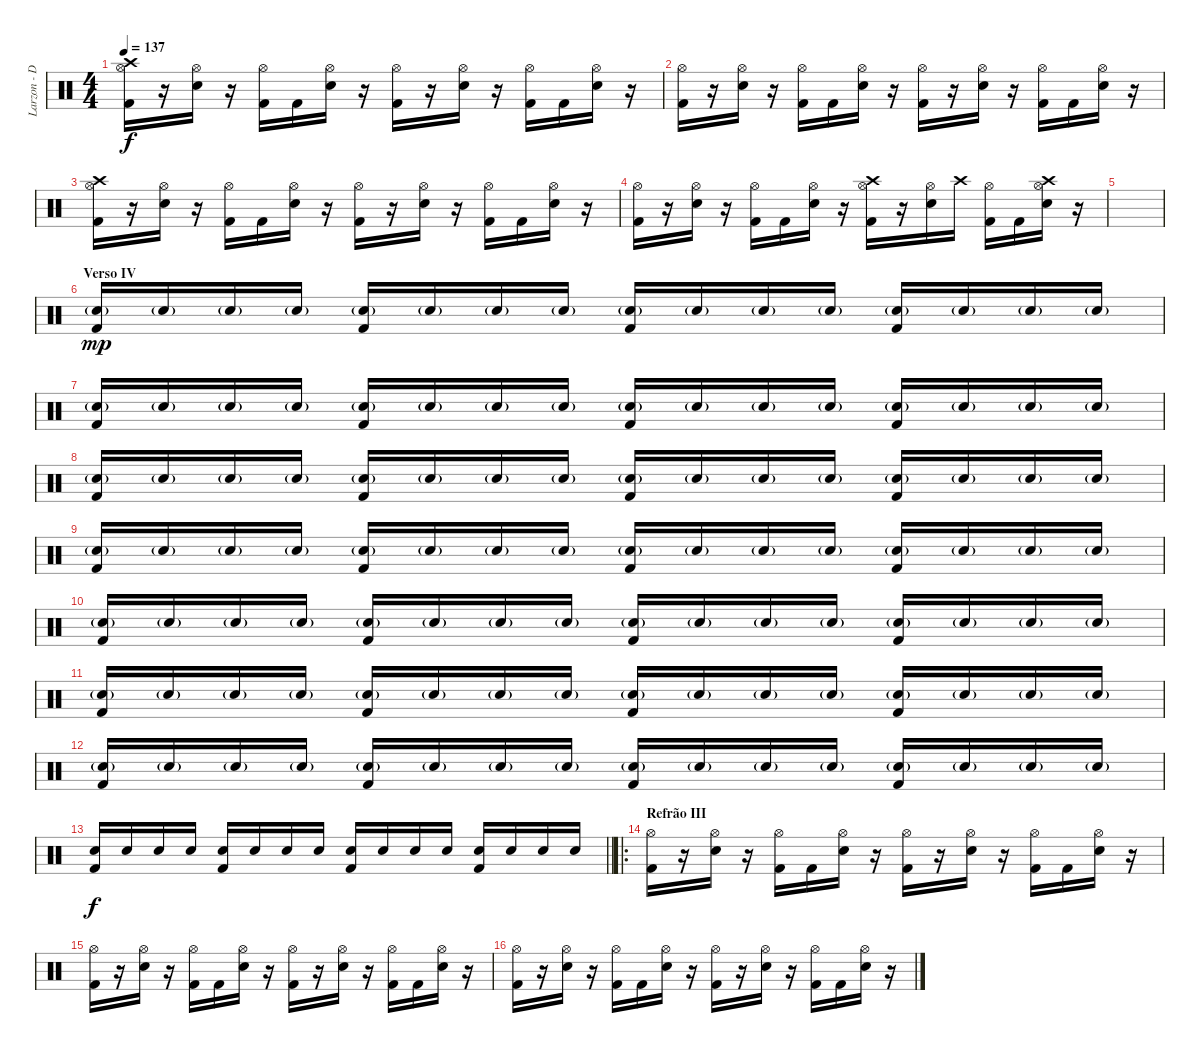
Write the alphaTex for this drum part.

\track ("Larzon - Drums" "Larzon - D") {instrument percussion}
\staff {score}
\articulation defaults
\ts (4 4)
\tempo 137
\clef neutral
\ks c
("Kick (hit) 2" "Crash high (hit)" "Hi-Hat (open)").16{dy f} r.16 ("Snare (hit) 2" "Hi-Hat (open)").16 r.16 ("Kick (hit) 2" "Hi-Hat (open)").16 "Kick (hit) 2".16 ("Snare (hit) 2" "Hi-Hat (open)").16 r.16 ("Kick (hit) 2" "Hi-Hat (open)").16 r.16 ("Snare (hit) 2" "Hi-Hat (open)").16 r.16 ("Kick (hit) 2" "Hi-Hat (open)").16 "Kick (hit) 2".16 ("Snare (hit) 2" "Hi-Hat (open)").16 r.16 |
("Kick (hit) 2" "Hi-Hat (open)").16 r.16 ("Snare (hit) 2" "Hi-Hat (open)").16 r.16 ("Kick (hit) 2" "Hi-Hat (open)").16 "Kick (hit) 2".16 ("Snare (hit) 2" "Hi-Hat (open)").16 r.16 ("Kick (hit) 2" "Hi-Hat (open)").16 r.16 ("Snare (hit) 2" "Hi-Hat (open)").16 r.16 ("Kick (hit) 2" "Hi-Hat (open)").16 "Kick (hit) 2".16 ("Snare (hit) 2" "Hi-Hat (open)").16 r.16 |
("Kick (hit) 2" "Crash high (hit)" "Hi-Hat (open)").16 r.16 ("Snare (hit) 2" "Hi-Hat (open)").16 r.16 ("Kick (hit) 2" "Hi-Hat (open)").16 "Kick (hit) 2".16 ("Snare (hit) 2" "Hi-Hat (open)").16 r.16 ("Kick (hit) 2" "Hi-Hat (open)").16 r.16 ("Snare (hit) 2" "Hi-Hat (open)").16 r.16 ("Kick (hit) 2" "Hi-Hat (open)").16 "Kick (hit) 2".16 ("Snare (hit) 2" "Hi-Hat (open)").16 r.16 |
("Kick (hit) 2" "Hi-Hat (open)").16 r.16 ("Snare (hit) 2" "Hi-Hat (open)").16 r.16 ("Kick (hit) 2" "Hi-Hat (open)").16 "Kick (hit) 2".16 ("Snare (hit) 2" "Hi-Hat (open)").16 r.16 ("Kick (hit) 2" "Crash high (hit)" "Hi-Hat (open)").16 r.16 ("Snare (hit) 2" "Hi-Hat (open)").16 "Crash high (hit)".16 ("Kick (hit) 2" "Hi-Hat (open)").16 "Kick (hit) 2".16 ("Snare (hit) 2" "Crash high (hit)" "Hi-Hat (open)").16 r.16 |
|
\section ("" "Verso IV")
("Snare (hit) 2"{g} "Kick (hit) 2").16{dy mp} "Snare (hit) 2"{g}.16 "Snare (hit) 2"{g}.16 "Snare (hit) 2"{g}.16 ("Snare (hit) 2"{g} "Kick (hit) 2").16 "Snare (hit) 2"{g}.16 "Snare (hit) 2"{g}.16 "Snare (hit) 2"{g}.16 ("Snare (hit) 2"{g} "Kick (hit) 2").16 "Snare (hit) 2"{g}.16 "Snare (hit) 2"{g}.16 "Snare (hit) 2"{g}.16 ("Snare (hit) 2"{g} "Kick (hit) 2").16 "Snare (hit) 2"{g}.16 "Snare (hit) 2"{g}.16 "Snare (hit) 2"{g}.16 |
("Snare (hit) 2"{g} "Kick (hit) 2").16 "Snare (hit) 2"{g}.16 "Snare (hit) 2"{g}.16 "Snare (hit) 2"{g}.16 ("Snare (hit) 2"{g} "Kick (hit) 2").16 "Snare (hit) 2"{g}.16 "Snare (hit) 2"{g}.16 "Snare (hit) 2"{g}.16 ("Snare (hit) 2"{g} "Kick (hit) 2").16 "Snare (hit) 2"{g}.16 "Snare (hit) 2"{g}.16 "Snare (hit) 2"{g}.16 ("Snare (hit) 2"{g} "Kick (hit) 2").16 "Snare (hit) 2"{g}.16 "Snare (hit) 2"{g}.16 "Snare (hit) 2"{g}.16 |
("Snare (hit) 2"{g} "Kick (hit) 2").16 "Snare (hit) 2"{g}.16 "Snare (hit) 2"{g}.16 "Snare (hit) 2"{g}.16 ("Snare (hit) 2"{g} "Kick (hit) 2").16 "Snare (hit) 2"{g}.16 "Snare (hit) 2"{g}.16 "Snare (hit) 2"{g}.16 ("Snare (hit) 2"{g} "Kick (hit) 2").16 "Snare (hit) 2"{g}.16 "Snare (hit) 2"{g}.16 "Snare (hit) 2"{g}.16 ("Snare (hit) 2"{g} "Kick (hit) 2").16 "Snare (hit) 2"{g}.16 "Snare (hit) 2"{g}.16 "Snare (hit) 2"{g}.16 |
("Snare (hit) 2"{g} "Kick (hit) 2").16 "Snare (hit) 2"{g}.16 "Snare (hit) 2"{g}.16 "Snare (hit) 2"{g}.16 ("Snare (hit) 2"{g} "Kick (hit) 2").16 "Snare (hit) 2"{g}.16 "Snare (hit) 2"{g}.16 "Snare (hit) 2"{g}.16 ("Snare (hit) 2"{g} "Kick (hit) 2").16 "Snare (hit) 2"{g}.16 "Snare (hit) 2"{g}.16 "Snare (hit) 2"{g}.16 ("Snare (hit) 2"{g} "Kick (hit) 2").16 "Snare (hit) 2"{g}.16 "Snare (hit) 2"{g}.16 "Snare (hit) 2"{g}.16 |
("Snare (hit) 2"{g} "Kick (hit) 2").16 "Snare (hit) 2"{g}.16 "Snare (hit) 2"{g}.16 "Snare (hit) 2"{g}.16 ("Snare (hit) 2"{g} "Kick (hit) 2").16 "Snare (hit) 2"{g}.16 "Snare (hit) 2"{g}.16 "Snare (hit) 2"{g}.16 ("Snare (hit) 2"{g} "Kick (hit) 2").16 "Snare (hit) 2"{g}.16 "Snare (hit) 2"{g}.16 "Snare (hit) 2"{g}.16 ("Snare (hit) 2"{g} "Kick (hit) 2").16 "Snare (hit) 2"{g}.16 "Snare (hit) 2"{g}.16 "Snare (hit) 2"{g}.16 |
("Snare (hit) 2"{g} "Kick (hit) 2").16 "Snare (hit) 2"{g}.16 "Snare (hit) 2"{g}.16 "Snare (hit) 2"{g}.16 ("Snare (hit) 2"{g} "Kick (hit) 2").16 "Snare (hit) 2"{g}.16 "Snare (hit) 2"{g}.16 "Snare (hit) 2"{g}.16 ("Snare (hit) 2"{g} "Kick (hit) 2").16 "Snare (hit) 2"{g}.16 "Snare (hit) 2"{g}.16 "Snare (hit) 2"{g}.16 ("Snare (hit) 2"{g} "Kick (hit) 2").16 "Snare (hit) 2"{g}.16 "Snare (hit) 2"{g}.16 "Snare (hit) 2"{g}.16 |
("Snare (hit) 2"{g} "Kick (hit) 2").16 "Snare (hit) 2"{g}.16 "Snare (hit) 2"{g}.16 "Snare (hit) 2"{g}.16 ("Snare (hit) 2"{g} "Kick (hit) 2").16 "Snare (hit) 2"{g}.16 "Snare (hit) 2"{g}.16 "Snare (hit) 2"{g}.16 ("Snare (hit) 2"{g} "Kick (hit) 2").16 "Snare (hit) 2"{g}.16 "Snare (hit) 2"{g}.16 "Snare (hit) 2"{g}.16 ("Snare (hit) 2"{g} "Kick (hit) 2").16 "Snare (hit) 2"{g}.16 "Snare (hit) 2"{g}.16 "Snare (hit) 2"{g}.16 |
\barLineRight lightlight
("Snare (hit) 2" "Kick (hit) 2").16{dy f} "Snare (hit) 2".16 "Snare (hit) 2".16 "Snare (hit) 2".16 ("Snare (hit) 2" "Kick (hit) 2").16 "Snare (hit) 2".16 "Snare (hit) 2".16 "Snare (hit) 2".16 ("Snare (hit) 2" "Kick (hit) 2").16 "Snare (hit) 2".16 "Snare (hit) 2".16 "Snare (hit) 2".16 ("Snare (hit) 2" "Kick (hit) 2").16 "Snare (hit) 2".16 "Snare (hit) 2".16 "Snare (hit) 2".16 |
\ro
\section ("" "Refrão III")
("Kick (hit) 2" "Hi-Hat (open)").16 r.16 ("Snare (hit) 2" "Hi-Hat (open)").16 r.16 ("Kick (hit) 2" "Hi-Hat (open)").16 "Kick (hit) 2".16 ("Snare (hit) 2" "Hi-Hat (open)").16 r.16 ("Kick (hit) 2" "Hi-Hat (open)").16 r.16 ("Snare (hit) 2" "Hi-Hat (open)").16 r.16 ("Kick (hit) 2" "Hi-Hat (open)").16 "Kick (hit) 2".16 ("Snare (hit) 2" "Hi-Hat (open)").16 r.16 |
("Kick (hit) 2" "Hi-Hat (open)").16 r.16 ("Snare (hit) 2" "Hi-Hat (open)").16 r.16 ("Kick (hit) 2" "Hi-Hat (open)").16 "Kick (hit) 2".16 ("Snare (hit) 2" "Hi-Hat (open)").16 r.16 ("Kick (hit) 2" "Hi-Hat (open)").16 r.16 ("Snare (hit) 2" "Hi-Hat (open)").16 r.16 ("Kick (hit) 2" "Hi-Hat (open)").16 "Kick (hit) 2".16 ("Snare (hit) 2" "Hi-Hat (open)").16 r.16 |
("Kick (hit) 2" "Hi-Hat (open)").16 r.16 ("Snare (hit) 2" "Hi-Hat (open)").16 r.16 ("Kick (hit) 2" "Hi-Hat (open)").16 "Kick (hit) 2".16 ("Snare (hit) 2" "Hi-Hat (open)").16 r.16 ("Kick (hit) 2" "Hi-Hat (open)").16 r.16 ("Snare (hit) 2" "Hi-Hat (open)").16 r.16 ("Kick (hit) 2" "Hi-Hat (open)").16 "Kick (hit) 2".16 ("Snare (hit) 2" "Hi-Hat (open)").16 r.16
